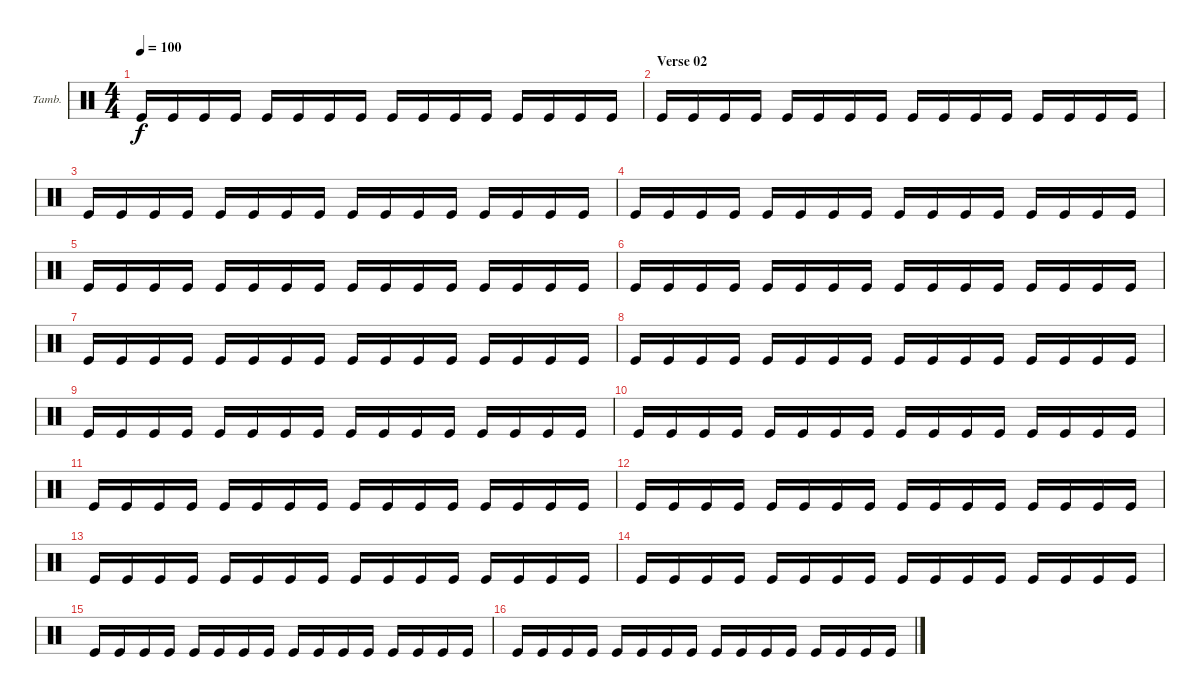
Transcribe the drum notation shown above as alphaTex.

\bracketExtendMode groupsimilarinstruments
\firstSystemTrackNameOrientation horizontal
\otherSystemsTrackNameOrientation horizontal
\track ("Tambourine" "Tamb.") {instrument percussion}
\staff {score}
\articulation defaults
\ts (4 4)
\tempo 100
\clef neutral
\ks c "Kick (hit)".16{dy f} "Kick (hit)".16 "Kick (hit)".16 "Kick (hit)".16 "Kick (hit)".16 "Kick (hit)".16 "Kick (hit)".16 "Kick (hit)".16 "Kick (hit)".16 "Kick (hit)".16 "Kick (hit)".16 "Kick (hit)".16 "Kick (hit)".16 "Kick (hit)".16 "Kick (hit)".16 "Kick (hit)".16
|
\section ("" "Verse 02")
"Kick (hit)".16 "Kick (hit)".16 "Kick (hit)".16 "Kick (hit)".16 "Kick (hit)".16 "Kick (hit)".16 "Kick (hit)".16 "Kick (hit)".16 "Kick (hit)".16 "Kick (hit)".16 "Kick (hit)".16 "Kick (hit)".16 "Kick (hit)".16 "Kick (hit)".16 "Kick (hit)".16 "Kick (hit)".16 |
"Kick (hit)".16 "Kick (hit)".16 "Kick (hit)".16 "Kick (hit)".16 "Kick (hit)".16 "Kick (hit)".16 "Kick (hit)".16 "Kick (hit)".16 "Kick (hit)".16 "Kick (hit)".16 "Kick (hit)".16 "Kick (hit)".16 "Kick (hit)".16 "Kick (hit)".16 "Kick (hit)".16 "Kick (hit)".16 |
"Kick (hit)".16 "Kick (hit)".16 "Kick (hit)".16 "Kick (hit)".16 "Kick (hit)".16 "Kick (hit)".16 "Kick (hit)".16 "Kick (hit)".16 "Kick (hit)".16 "Kick (hit)".16 "Kick (hit)".16 "Kick (hit)".16 "Kick (hit)".16 "Kick (hit)".16 "Kick (hit)".16 "Kick (hit)".16 |
"Kick (hit)".16 "Kick (hit)".16 "Kick (hit)".16 "Kick (hit)".16 "Kick (hit)".16 "Kick (hit)".16 "Kick (hit)".16 "Kick (hit)".16 "Kick (hit)".16 "Kick (hit)".16 "Kick (hit)".16 "Kick (hit)".16 "Kick (hit)".16 "Kick (hit)".16 "Kick (hit)".16 "Kick (hit)".16 |
"Kick (hit)".16 "Kick (hit)".16 "Kick (hit)".16 "Kick (hit)".16 "Kick (hit)".16 "Kick (hit)".16 "Kick (hit)".16 "Kick (hit)".16 "Kick (hit)".16 "Kick (hit)".16 "Kick (hit)".16 "Kick (hit)".16 "Kick (hit)".16 "Kick (hit)".16 "Kick (hit)".16 "Kick (hit)".16 |
"Kick (hit)".16 "Kick (hit)".16 "Kick (hit)".16 "Kick (hit)".16 "Kick (hit)".16 "Kick (hit)".16 "Kick (hit)".16 "Kick (hit)".16 "Kick (hit)".16 "Kick (hit)".16 "Kick (hit)".16 "Kick (hit)".16 "Kick (hit)".16 "Kick (hit)".16 "Kick (hit)".16 "Kick (hit)".16 |
"Kick (hit)".16 "Kick (hit)".16 "Kick (hit)".16 "Kick (hit)".16 "Kick (hit)".16 "Kick (hit)".16 "Kick (hit)".16 "Kick (hit)".16 "Kick (hit)".16 "Kick (hit)".16 "Kick (hit)".16 "Kick (hit)".16 "Kick (hit)".16 "Kick (hit)".16 "Kick (hit)".16 "Kick (hit)".16 |
"Kick (hit)".16 "Kick (hit)".16 "Kick (hit)".16 "Kick (hit)".16 "Kick (hit)".16 "Kick (hit)".16 "Kick (hit)".16 "Kick (hit)".16 "Kick (hit)".16 "Kick (hit)".16 "Kick (hit)".16 "Kick (hit)".16 "Kick (hit)".16 "Kick (hit)".16 "Kick (hit)".16 "Kick (hit)".16 |
"Kick (hit)".16 "Kick (hit)".16 "Kick (hit)".16 "Kick (hit)".16 "Kick (hit)".16 "Kick (hit)".16 "Kick (hit)".16 "Kick (hit)".16 "Kick (hit)".16 "Kick (hit)".16 "Kick (hit)".16 "Kick (hit)".16 "Kick (hit)".16 "Kick (hit)".16 "Kick (hit)".16 "Kick (hit)".16 |
"Kick (hit)".16 "Kick (hit)".16 "Kick (hit)".16 "Kick (hit)".16 "Kick (hit)".16 "Kick (hit)".16 "Kick (hit)".16 "Kick (hit)".16 "Kick (hit)".16 "Kick (hit)".16 "Kick (hit)".16 "Kick (hit)".16 "Kick (hit)".16 "Kick (hit)".16 "Kick (hit)".16 "Kick (hit)".16 |
"Kick (hit)".16 "Kick (hit)".16 "Kick (hit)".16 "Kick (hit)".16 "Kick (hit)".16 "Kick (hit)".16 "Kick (hit)".16 "Kick (hit)".16 "Kick (hit)".16 "Kick (hit)".16 "Kick (hit)".16 "Kick (hit)".16 "Kick (hit)".16 "Kick (hit)".16 "Kick (hit)".16 "Kick (hit)".16 |
"Kick (hit)".16 "Kick (hit)".16 "Kick (hit)".16 "Kick (hit)".16 "Kick (hit)".16 "Kick (hit)".16 "Kick (hit)".16 "Kick (hit)".16 "Kick (hit)".16 "Kick (hit)".16 "Kick (hit)".16 "Kick (hit)".16 "Kick (hit)".16 "Kick (hit)".16 "Kick (hit)".16 "Kick (hit)".16 |
"Kick (hit)".16 "Kick (hit)".16 "Kick (hit)".16 "Kick (hit)".16 "Kick (hit)".16 "Kick (hit)".16 "Kick (hit)".16 "Kick (hit)".16 "Kick (hit)".16 "Kick (hit)".16 "Kick (hit)".16 "Kick (hit)".16 "Kick (hit)".16 "Kick (hit)".16 "Kick (hit)".16 "Kick (hit)".16 |
"Kick (hit)".16 "Kick (hit)".16 "Kick (hit)".16 "Kick (hit)".16 "Kick (hit)".16 "Kick (hit)".16 "Kick (hit)".16 "Kick (hit)".16 "Kick (hit)".16 "Kick (hit)".16 "Kick (hit)".16 "Kick (hit)".16 "Kick (hit)".16 "Kick (hit)".16 "Kick (hit)".16 "Kick (hit)".16 |
"Kick (hit)".16 "Kick (hit)".16 "Kick (hit)".16 "Kick (hit)".16 "Kick (hit)".16 "Kick (hit)".16 "Kick (hit)".16 "Kick (hit)".16 "Kick (hit)".16 "Kick (hit)".16 "Kick (hit)".16 "Kick (hit)".16 "Kick (hit)".16 "Kick (hit)".16 "Kick (hit)".16 "Kick (hit)".16
